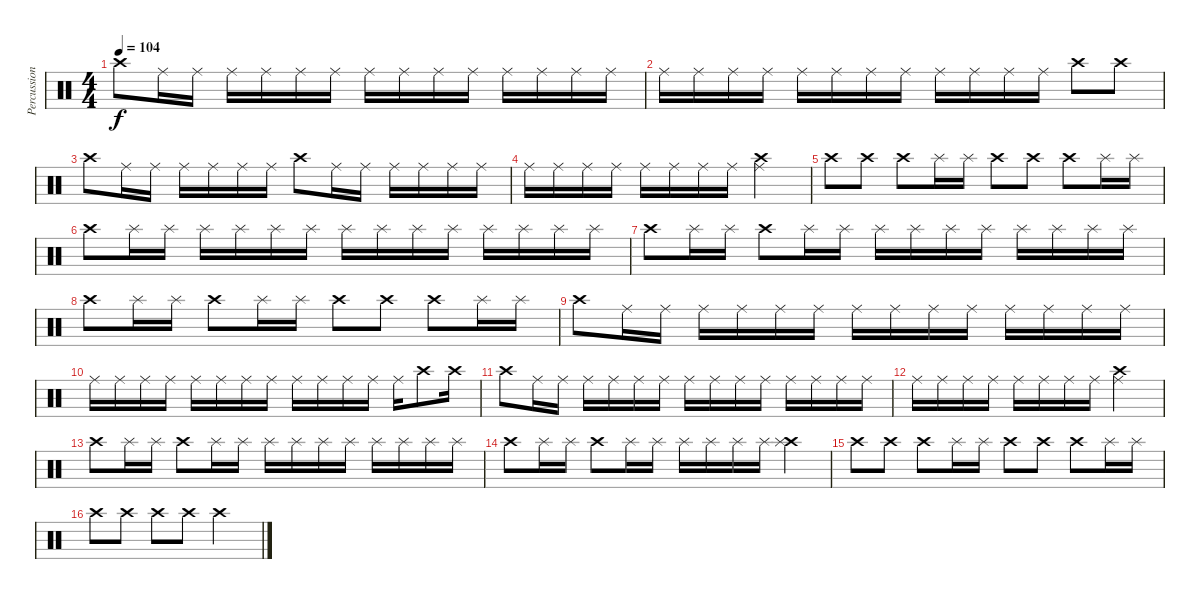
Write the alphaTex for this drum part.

\track ("Percussion2" "Percussion") {instrument percussion}
\staff {score}
\articulation defaults
\ts (4 4)
\tempo 104
\clef neutral
\ks c "Crash high (hit)".8{dy f} "Ride (middle)".16 "Ride (middle)".16 "Ride (middle)".16 "Ride (middle)".16 "Ride (middle)".16 "Ride (middle)".16 "Ride (middle)".16 "Ride (middle)".16 "Ride (middle)".16 "Ride (middle)".16 "Ride (middle)".16 "Ride (middle)".16 "Ride (middle)".16 "Ride (middle)".16
|
"Ride (middle)".16 "Ride (middle)".16 "Ride (middle)".16 "Ride (middle)".16 "Ride (middle)".16 "Ride (middle)".16 "Ride (middle)".16 "Ride (middle)".16 "Ride (middle)".16 "Ride (middle)".16 "Ride (middle)".16 "Ride (middle)".16 "Crash high (hit)".8 "Crash high (hit)".8 |
"Crash high (hit)".8 "Ride (middle)".16 "Ride (middle)".16 "Ride (middle)".16 "Ride (middle)".16 "Ride (middle)".16 "Ride (middle)".16 "Crash high (hit)".8 "Ride (middle)".16 "Ride (middle)".16 "Ride (middle)".16 "Ride (middle)".16 "Ride (middle)".16 "Ride (middle)".16 |
"Ride (middle)".16 "Ride (middle)".16 "Ride (middle)".16 "Ride (middle)".16 "Ride (middle)".16 "Ride (middle)".16 "Ride (middle)".16 "Ride (middle)".16 ("Crash high (hit)" "Ride (middle)").2 |
"Crash high (hit)".8 "Crash high (hit)".8 "Crash high (hit)".8 "Splash (hit)".16 "Splash (hit)".16 "Crash high (hit)".8 "Crash high (hit)".8 "Crash high (hit)".8 "Splash (hit)".16 "Splash (hit)".16 |
"Crash high (hit)".8 "Splash (hit)".16 "Splash (hit)".16 "Splash (hit)".16 "Splash (hit)".16 "Splash (hit)".16 "Splash (hit)".16 "Splash (hit)".16 "Splash (hit)".16 "Splash (hit)".16 "Splash (hit)".16 "Splash (hit)".16 "Splash (hit)".16 "Splash (hit)".16 "Splash (hit)".16 |
"Crash high (hit)".8 "Splash (hit)".16 "Splash (hit)".16 "Crash high (hit)".8 "Splash (hit)".16 "Splash (hit)".16 "Splash (hit)".16 "Splash (hit)".16 "Splash (hit)".16 "Splash (hit)".16 "Splash (hit)".16 "Splash (hit)".16 "Splash (hit)".16 "Splash (hit)".16 |
"Crash high (hit)".8 "Splash (hit)".16 "Splash (hit)".16 "Crash high (hit)".8 "Splash (hit)".16 "Splash (hit)".16 "Crash high (hit)".8 "Crash high (hit)".8 "Crash high (hit)".8 "Splash (hit)".16 "Splash (hit)".16 |
"Crash high (hit)".8 "Ride (middle)".16 "Ride (middle)".16 "Ride (middle)".16 "Ride (middle)".16 "Ride (middle)".16 "Ride (middle)".16 "Ride (middle)".16 "Ride (middle)".16 "Ride (middle)".16 "Ride (middle)".16 "Ride (middle)".16 "Ride (middle)".16 "Ride (middle)".16 "Ride (middle)".16 |
"Ride (middle)".16 "Ride (middle)".16 "Ride (middle)".16 "Ride (middle)".16 "Ride (middle)".16 "Ride (middle)".16 "Ride (middle)".16 "Ride (middle)".16 "Ride (middle)".16 "Ride (middle)".16 "Ride (middle)".16 "Ride (middle)".16 "Ride (middle)".16 "Crash high (hit)".8 "Crash high (hit)".16 |
"Crash high (hit)".8 "Ride (middle)".16 "Ride (middle)".16 "Ride (middle)".16 "Ride (middle)".16 "Ride (middle)".16 "Ride (middle)".16 "Ride (middle)".16 "Ride (middle)".16 "Ride (middle)".16 "Ride (middle)".16 "Ride (middle)".16 "Ride (middle)".16 "Ride (middle)".16 "Ride (middle)".16 |
"Ride (middle)".16 "Ride (middle)".16 "Ride (middle)".16 "Ride (middle)".16 "Ride (middle)".16 "Ride (middle)".16 "Ride (middle)".16 "Ride (middle)".16 ("Crash high (hit)" "Ride (middle)").2 |
"Crash high (hit)".8 "Splash (hit)".16 "Splash (hit)".16 "Crash high (hit)".8 "Splash (hit)".16 "Splash (hit)".16 "Splash (hit)".16 "Splash (hit)".16 "Splash (hit)".16 "Splash (hit)".16 "Splash (hit)".16 "Splash (hit)".16 "Splash (hit)".16 "Splash (hit)".16 |
"Crash high (hit)".8 "Splash (hit)".16 "Splash (hit)".16 "Crash high (hit)".8 "Splash (hit)".16 "Splash (hit)".16 "Splash (hit)".16 "Splash (hit)".16 "Splash (hit)".16 "Splash (hit)".16 ("Crash high (hit)" "Splash (hit)").4 |
"Crash high (hit)".8 "Crash high (hit)".8 "Crash high (hit)".8 "Splash (hit)".16 "Splash (hit)".16 "Crash high (hit)".8 "Crash high (hit)".8 "Crash high (hit)".8 "Splash (hit)".16 "Splash (hit)".16 |
"Crash high (hit)".8 "Crash high (hit)".8 "Crash high (hit)".8 "Crash high (hit)".8 "Crash high (hit)".2
